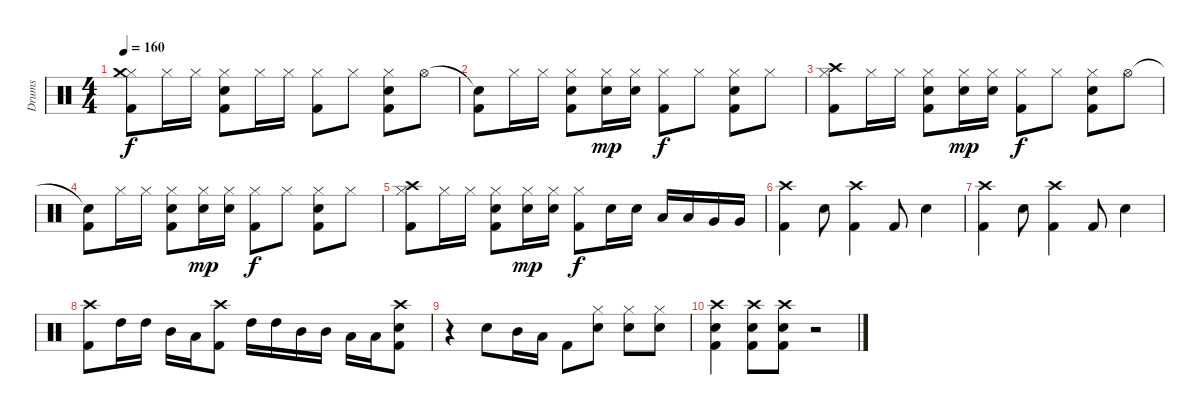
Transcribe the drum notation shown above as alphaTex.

\track ("Drums" "Drums") {instrument percussion}
\staff {score}
\articulation defaults
\ts (4 4)
\tempo 160
\clef neutral
\ks c
("Hi-Hat (closed)" "Crash medium (hit)" "Kick (hit) 2").8{dy f} "Hi-Hat (closed)".16 "Hi-Hat (closed)".16 ("Hi-Hat (closed)" "Snare (hit) 2" "Kick (hit) 2").8 "Hi-Hat (closed)".16 "Hi-Hat (closed)".16 ("Hi-Hat (closed)" "Kick (hit) 2").8 "Hi-Hat (closed)".8 ("Hi-Hat (closed)" "Snare (hit) 2" "Kick (hit) 2").8 "Hi-Hat (open)".8 |
("Snare (hit)"{t} "Kick (hit) 2").8 "Hi-Hat (closed)".16 "Hi-Hat (closed)".16 ("Hi-Hat (closed)" "Snare (hit) 2" "Kick (hit) 2").8 ("Hi-Hat (closed)" "Snare (hit) 2").16{dy mp} ("Hi-Hat (closed)" "Snare (hit) 2").16 ("Hi-Hat (closed)" "Kick (hit) 2").8{dy f} "Hi-Hat (closed)".8 ("Hi-Hat (closed)" "Snare (hit) 2" "Kick (hit) 2").8 "Hi-Hat (closed)".8 |
("Hi-Hat (closed)" "Crash high (hit)" "Kick (hit) 2").8 "Hi-Hat (closed)".16 "Hi-Hat (closed)".16 ("Hi-Hat (closed)" "Snare (hit) 2" "Kick (hit) 2").8 ("Hi-Hat (closed)" "Snare (hit) 2").16{dy mp} ("Hi-Hat (closed)" "Snare (hit) 2").16 ("Hi-Hat (closed)" "Kick (hit) 2").8{dy f} "Hi-Hat (closed)".8 ("Hi-Hat (closed)" "Snare (hit) 2" "Kick (hit) 2").8 "Hi-Hat (open)".8 |
("Snare (hit)"{t} "Kick (hit) 2").8 "Hi-Hat (closed)".16 "Hi-Hat (closed)".16 ("Hi-Hat (closed)" "Snare (hit) 2" "Kick (hit) 2").8 ("Hi-Hat (closed)" "Snare (hit) 2").16{dy mp} ("Hi-Hat (closed)" "Snare (hit) 2").16 ("Hi-Hat (closed)" "Kick (hit) 2").8{dy f} "Hi-Hat (closed)".8 ("Hi-Hat (closed)" "Snare (hit) 2" "Kick (hit) 2").8 "Hi-Hat (closed)".8 |
("Hi-Hat (closed)" "Crash high (hit)" "Kick (hit) 2").8 "Hi-Hat (closed)".16 "Hi-Hat (closed)".16 ("Hi-Hat (closed)" "Snare (hit) 2" "Kick (hit) 2").8 ("Hi-Hat (closed)" "Snare (hit) 2").16{dy mp} ("Hi-Hat (closed)" "Snare (hit) 2").16 ("Hi-Hat (closed)" "Kick (hit) 2").8{dy f} "Snare (hit) 2".16 "Snare (hit) 2".16 "Low Tom (hit)".16 "Low Tom (hit)".16 "Very Low Tom (hit)".16 "Very Low Tom (hit)".16 |
("Crash high (hit)" "Kick (hit) 2").4 "Snare (hit) 2".8 ("Crash high (hit)" "Kick (hit) 2").4 "Kick (hit) 2".8 "Snare (hit) 2".4 |
("Crash high (hit)" "Kick (hit) 2").4 "Snare (hit) 2".8 ("Crash high (hit)" "Kick (hit) 2").4 "Kick (hit) 2".8 "Snare (hit) 2".4 |
("Crash high (hit)" "Kick (hit) 2").8 "High Tom (hit)".16 "High Tom (hit)".16 "Mid Tom (hit)".16 "Low Tom (hit)".16 ("Crash high (hit)" "Kick (hit) 2").8 "High Tom (hit)".16 "High Tom (hit)".16 "Mid Tom (hit)".16 "Mid Tom (hit)".16 "Low Tom (hit)".16 "Low Tom (hit)".16 ("Crash high (hit)" "Snare (hit) 2" "Kick (hit) 2").8 |
r.4 "Snare (hit) 2".8 "Mid Tom (hit)".16 "Low Tom (hit)".16 "Kick (hit) 2".8 ("Hi-Hat (closed)" "Snare (hit) 2").8 ("Hi-Hat (closed)" "Snare (hit) 2").8 ("Hi-Hat (closed)" "Snare (hit) 2").8 |
("Crash high (hit)" "Snare (hit) 2" "Kick (hit) 2").4 ("Crash high (hit)" "Snare (hit) 2" "Kick (hit) 2").8 ("Crash high (hit)" "Snare (hit) 2" "Kick (hit) 2").8 r.2
